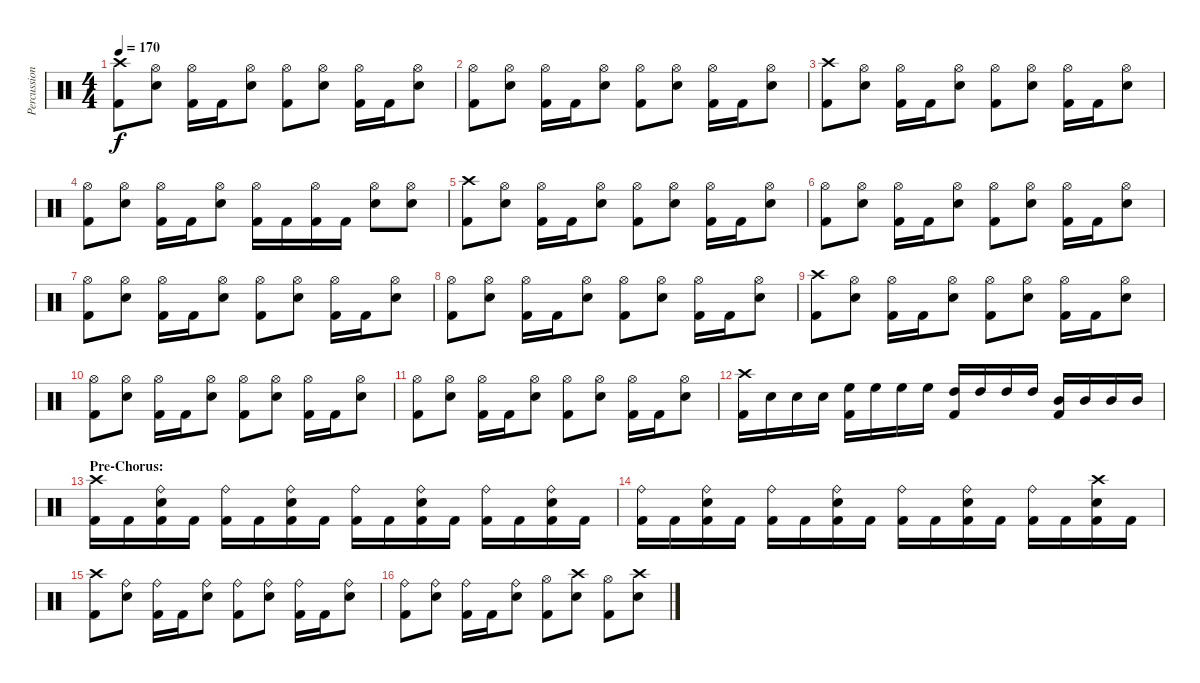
\track ("Percussion" "Percussion") {instrument percussion}
\staff {score}
\articulation defaults
\ts (4 4)
\tempo 170
\clef neutral
\ks c
("Crash high (hit)" "Kick (hit) 2").8{dy f} ("Hi-Hat (open)" "Electric Snare (hit)").8 ("Hi-Hat (open)" "Kick (hit) 2").16 "Kick (hit) 2".16 ("Hi-Hat (open)" "Electric Snare (hit)").8 ("Hi-Hat (open)" "Kick (hit) 2").8 ("Hi-Hat (open)" "Electric Snare (hit)").8 ("Hi-Hat (open)" "Kick (hit) 2").16 "Kick (hit) 2".16 ("Hi-Hat (open)" "Electric Snare (hit)").8 |
("Hi-Hat (open)" "Kick (hit) 2").8 ("Hi-Hat (open)" "Electric Snare (hit)").8 ("Hi-Hat (open)" "Kick (hit) 2").16 "Kick (hit) 2".16 ("Hi-Hat (open)" "Electric Snare (hit)").8 ("Hi-Hat (open)" "Kick (hit) 2").8 ("Hi-Hat (open)" "Electric Snare (hit)").8 ("Hi-Hat (open)" "Kick (hit) 2").16 "Kick (hit) 2".16 ("Hi-Hat (open)" "Electric Snare (hit)").8 |
("Crash high (hit)" "Kick (hit) 2").8 ("Hi-Hat (open)" "Electric Snare (hit)").8 ("Hi-Hat (open)" "Kick (hit) 2").16 "Kick (hit) 2".16 ("Hi-Hat (open)" "Electric Snare (hit)").8 ("Hi-Hat (open)" "Kick (hit) 2").8 ("Hi-Hat (open)" "Electric Snare (hit)").8 ("Hi-Hat (open)" "Kick (hit) 2").16 "Kick (hit) 2".16 ("Hi-Hat (open)" "Electric Snare (hit)").8 |
("Hi-Hat (open)" "Kick (hit) 2").8 ("Hi-Hat (open)" "Electric Snare (hit)").8 ("Hi-Hat (open)" "Kick (hit) 2").16 "Kick (hit) 2".16 ("Hi-Hat (open)" "Electric Snare (hit)").8 ("Hi-Hat (open)" "Kick (hit) 2").16 "Kick (hit) 2".16 ("Hi-Hat (open)" "Kick (hit) 2").16 "Kick (hit) 2".16 ("Hi-Hat (open)" "Electric Snare (hit)").8 ("Hi-Hat (open)" "Electric Snare (hit)").8 |
("Crash high (hit)" "Kick (hit) 2").8 ("Hi-Hat (open)" "Electric Snare (hit)").8 ("Hi-Hat (open)" "Kick (hit) 2").16 "Kick (hit) 2".16 ("Hi-Hat (open)" "Electric Snare (hit)").8 ("Hi-Hat (open)" "Kick (hit) 2").8 ("Hi-Hat (open)" "Electric Snare (hit)").8 ("Hi-Hat (open)" "Kick (hit) 2").16 "Kick (hit) 2".16 ("Hi-Hat (open)" "Electric Snare (hit)").8 |
("Hi-Hat (open)" "Kick (hit) 2").8 ("Hi-Hat (open)" "Electric Snare (hit)").8 ("Hi-Hat (open)" "Kick (hit) 2").16 "Kick (hit) 2".16 ("Hi-Hat (open)" "Electric Snare (hit)").8 ("Hi-Hat (open)" "Kick (hit) 2").8 ("Hi-Hat (open)" "Electric Snare (hit)").8 ("Hi-Hat (open)" "Kick (hit) 2").16 "Kick (hit) 2".16 ("Hi-Hat (open)" "Electric Snare (hit)").8 |
("Hi-Hat (open)" "Kick (hit) 2").8 ("Hi-Hat (open)" "Electric Snare (hit)").8 ("Hi-Hat (open)" "Kick (hit) 2").16 "Kick (hit) 2".16 ("Hi-Hat (open)" "Electric Snare (hit)").8 ("Hi-Hat (open)" "Kick (hit) 2").8 ("Hi-Hat (open)" "Electric Snare (hit)").8 ("Hi-Hat (open)" "Kick (hit) 2").16 "Kick (hit) 2".16 ("Hi-Hat (open)" "Electric Snare (hit)").8 |
("Hi-Hat (open)" "Kick (hit) 2").8 ("Hi-Hat (open)" "Electric Snare (hit)").8 ("Hi-Hat (open)" "Kick (hit) 2").16 "Kick (hit) 2".16 ("Hi-Hat (open)" "Electric Snare (hit)").8 ("Hi-Hat (open)" "Kick (hit) 2").8 ("Hi-Hat (open)" "Electric Snare (hit)").8 ("Hi-Hat (open)" "Kick (hit) 2").16 "Kick (hit) 2".16 ("Hi-Hat (open)" "Electric Snare (hit)").8 |
("Crash high (hit)" "Kick (hit) 2").8 ("Hi-Hat (open)" "Electric Snare (hit)").8 ("Hi-Hat (open)" "Kick (hit) 2").16 "Kick (hit) 2".16 ("Hi-Hat (open)" "Electric Snare (hit)").8 ("Hi-Hat (open)" "Kick (hit) 2").8 ("Hi-Hat (open)" "Electric Snare (hit)").8 ("Hi-Hat (open)" "Kick (hit) 2").16 "Kick (hit) 2".16 ("Hi-Hat (open)" "Electric Snare (hit)").8 |
("Hi-Hat (open)" "Kick (hit) 2").8 ("Hi-Hat (open)" "Electric Snare (hit)").8 ("Hi-Hat (open)" "Kick (hit) 2").16 "Kick (hit) 2".16 ("Hi-Hat (open)" "Electric Snare (hit)").8 ("Hi-Hat (open)" "Kick (hit) 2").8 ("Hi-Hat (open)" "Electric Snare (hit)").8 ("Hi-Hat (open)" "Kick (hit) 2").16 "Kick (hit) 2".16 ("Hi-Hat (open)" "Electric Snare (hit)").8 |
("Hi-Hat (open)" "Kick (hit) 2").8 ("Hi-Hat (open)" "Electric Snare (hit)").8 ("Hi-Hat (open)" "Kick (hit) 2").16 "Kick (hit) 2".16 ("Hi-Hat (open)" "Electric Snare (hit)").8 ("Hi-Hat (open)" "Kick (hit) 2").8 ("Hi-Hat (open)" "Electric Snare (hit)").8 ("Hi-Hat (open)" "Kick (hit) 2").16 "Kick (hit) 2".16 ("Hi-Hat (open)" "Electric Snare (hit)").8 |
("Crash high (hit)" "Kick (hit) 2").16 "Electric Snare (hit)".16 "Electric Snare (hit)".16 "Electric Snare (hit)".16 ("High Floor Tom (hit)" "Kick (hit) 2").16 "High Floor Tom (hit)".16 "High Floor Tom (hit)".16 "High Floor Tom (hit)".16 ("High Tom (hit)" "Kick (hit) 2").16 "High Tom (hit)".16 "High Tom (hit)".16 "High Tom (hit)".16 ("Mid Tom (hit)" "Kick (hit) 2").16 "Mid Tom (hit)".16 "Mid Tom (hit)".16 "Mid Tom (hit)".16 |
\section ("" "Pre-Chorus:")
("Crash high (hit)" "Kick (hit) 2").16 "Kick (hit) 2".16 ("Ride (bell)" "Electric Snare (hit)" "Kick (hit) 2").16 "Kick (hit) 2".16 ("Ride (bell)" "Kick (hit) 2").16 "Kick (hit) 2".16 ("Ride (bell)" "Electric Snare (hit)" "Kick (hit) 2").16 "Kick (hit) 2".16 ("Ride (bell)" "Kick (hit) 2").16 "Kick (hit) 2".16 ("Ride (bell)" "Electric Snare (hit)" "Kick (hit) 2").16 "Kick (hit) 2".16 ("Ride (bell)" "Kick (hit) 2").16 "Kick (hit) 2".16 ("Ride (bell)" "Electric Snare (hit)" "Kick (hit) 2").16 "Kick (hit) 2".16 |
("Ride (bell)" "Kick (hit) 2").16 "Kick (hit) 2".16 ("Ride (bell)" "Electric Snare (hit)" "Kick (hit) 2").16 "Kick (hit) 2".16 ("Ride (bell)" "Kick (hit) 2").16 "Kick (hit) 2".16 ("Ride (bell)" "Electric Snare (hit)" "Kick (hit) 2").16 "Kick (hit) 2".16 ("Ride (bell)" "Kick (hit) 2").16 "Kick (hit) 2".16 ("Ride (bell)" "Electric Snare (hit)" "Kick (hit) 2").16 "Kick (hit) 2".16 ("Ride (bell)" "Kick (hit) 2").16 "Kick (hit) 2".16 ("Crash high (hit)" "Electric Snare (hit)" "Kick (hit) 2").16 "Kick (hit) 2".16 |
("Crash high (hit)" "Kick (hit) 2").8 ("Ride (bell)" "Electric Snare (hit)").8 ("Ride (bell)" "Kick (hit) 2").16 "Kick (hit) 2".16 ("Ride (bell)" "Electric Snare (hit)").8 ("Ride (bell)" "Kick (hit) 2").8 ("Ride (bell)" "Electric Snare (hit)").8 ("Ride (bell)" "Kick (hit) 2").16 "Kick (hit) 2".16 ("Ride (bell)" "Electric Snare (hit)").8 |
("Ride (bell)" "Kick (hit) 2").8 ("Ride (bell)" "Electric Snare (hit)").8 ("Ride (bell)" "Kick (hit) 2").16 "Kick (hit) 2".16 ("Ride (bell)" "Electric Snare (hit)").8 ("Hi-Hat (open)" "Kick (hit) 2").8 ("Crash high (hit)" "Electric Snare (hit)").8 ("Hi-Hat (open)" "Kick (hit) 2").8 ("Crash high (hit)" "Electric Snare (hit)").8
